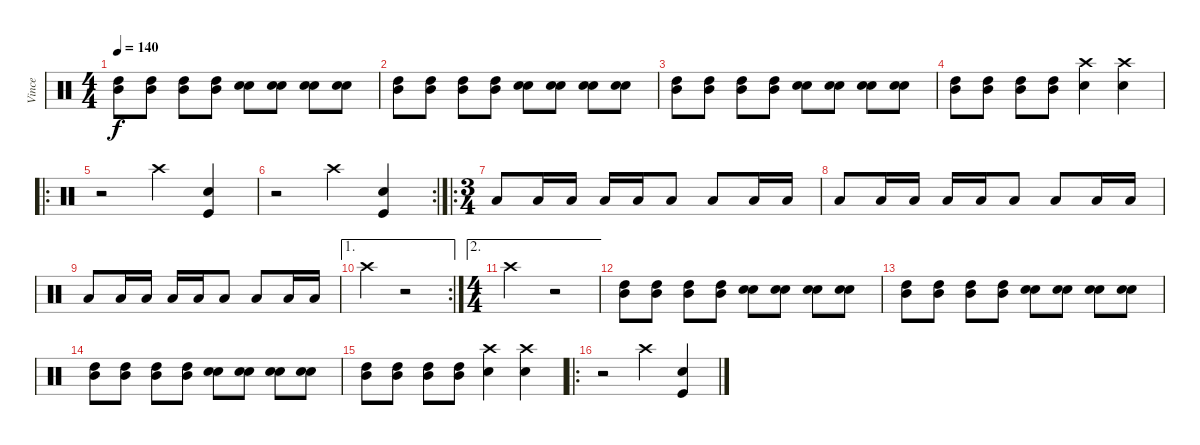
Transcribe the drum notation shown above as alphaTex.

\track ("Vince" "Vince") {instrument percussion}
\staff {score}
\articulation defaults
\ts (4 4)
\tempo 140
\clef neutral
\ks c
("High Tom (hit)" "Mid Tom (hit)").8{dy f} ("High Tom (hit)" "Mid Tom (hit)").8 ("High Tom (hit)" "Mid Tom (hit)").8 ("High Tom (hit)" "Mid Tom (hit)").8 ("Snare (hit) 2" "Snare (hit) 2").8 ("Snare (hit) 2" "Snare (hit) 2").8 ("Snare (hit) 2" "Snare (hit) 2").8 ("Snare (hit) 2" "Snare (hit) 2").8 |
("High Tom (hit)" "Mid Tom (hit)").8 ("High Tom (hit)" "Mid Tom (hit)").8 ("High Tom (hit)" "Mid Tom (hit)").8 ("High Tom (hit)" "Mid Tom (hit)").8 ("Snare (hit) 2" "Snare (hit) 2").8 ("Snare (hit) 2" "Snare (hit) 2").8 ("Snare (hit) 2" "Snare (hit) 2").8 ("Snare (hit) 2" "Snare (hit) 2").8 |
("High Tom (hit)" "Mid Tom (hit)").8 ("High Tom (hit)" "Mid Tom (hit)").8 ("High Tom (hit)" "Mid Tom (hit)").8 ("High Tom (hit)" "Mid Tom (hit)").8 ("Snare (hit) 2" "Snare (hit) 2").8 ("Snare (hit) 2" "Snare (hit) 2").8 ("Snare (hit) 2" "Snare (hit) 2").8 ("Snare (hit) 2" "Snare (hit) 2").8 |
("High Tom (hit)" "Mid Tom (hit)").8 ("High Tom (hit)" "Mid Tom (hit)").8 ("High Tom (hit)" "Mid Tom (hit)").8 ("High Tom (hit)" "Mid Tom (hit)").8 ("Crash high (hit)" "Snare (hit) 2").4 ("Crash high (hit)" "Snare (hit) 2").4 |
\ro
r.2 "Crash high (hit)".4 ("Snare (hit) 2" "Kick (hit)").4 |
\rc 2
r.2 "Crash high (hit)".4 ("Snare (hit) 2" "Kick (hit)").4 |
\ro
\ts (3 4)
"Low Floor Tom (hit)".8 "Low Floor Tom (hit)".16 "Low Floor Tom (hit)".16 "Low Floor Tom (hit)".16 "Low Floor Tom (hit)".16 "Low Floor Tom (hit)".8 "Low Floor Tom (hit)".8 "Low Floor Tom (hit)".16 "Low Floor Tom (hit)".16 |
"Low Floor Tom (hit)".8 "Low Floor Tom (hit)".16 "Low Floor Tom (hit)".16 "Low Floor Tom (hit)".16 "Low Floor Tom (hit)".16 "Low Floor Tom (hit)".8 "Low Floor Tom (hit)".8 "Low Floor Tom (hit)".16 "Low Floor Tom (hit)".16 |
"Low Floor Tom (hit)".8 "Low Floor Tom (hit)".16 "Low Floor Tom (hit)".16 "Low Floor Tom (hit)".16 "Low Floor Tom (hit)".16 "Low Floor Tom (hit)".8 "Low Floor Tom (hit)".8 "Low Floor Tom (hit)".16 "Low Floor Tom (hit)".16 |
\ae 1
\rc 2 "Crash high (hit)".4
r.2 |
\ae 2
\ts (4 4)
"Crash high (hit)".2 r.2 |
("High Tom (hit)" "Mid Tom (hit)").8 ("High Tom (hit)" "Mid Tom (hit)").8 ("High Tom (hit)" "Mid Tom (hit)").8 ("High Tom (hit)" "Mid Tom (hit)").8 ("Snare (hit) 2" "Snare (hit) 2").8 ("Snare (hit) 2" "Snare (hit) 2").8 ("Snare (hit) 2" "Snare (hit) 2").8 ("Snare (hit) 2" "Snare (hit) 2").8 |
("High Tom (hit)" "Mid Tom (hit)").8 ("High Tom (hit)" "Mid Tom (hit)").8 ("High Tom (hit)" "Mid Tom (hit)").8 ("High Tom (hit)" "Mid Tom (hit)").8 ("Snare (hit) 2" "Snare (hit) 2").8 ("Snare (hit) 2" "Snare (hit) 2").8 ("Snare (hit) 2" "Snare (hit) 2").8 ("Snare (hit) 2" "Snare (hit) 2").8 |
("High Tom (hit)" "Mid Tom (hit)").8 ("High Tom (hit)" "Mid Tom (hit)").8 ("High Tom (hit)" "Mid Tom (hit)").8 ("High Tom (hit)" "Mid Tom (hit)").8 ("Snare (hit) 2" "Snare (hit) 2").8 ("Snare (hit) 2" "Snare (hit) 2").8 ("Snare (hit) 2" "Snare (hit) 2").8 ("Snare (hit) 2" "Snare (hit) 2").8 |
("High Tom (hit)" "Mid Tom (hit)").8 ("High Tom (hit)" "Mid Tom (hit)").8 ("High Tom (hit)" "Mid Tom (hit)").8 ("High Tom (hit)" "Mid Tom (hit)").8 ("Crash high (hit)" "Snare (hit) 2").4 ("Crash high (hit)" "Snare (hit) 2").4 |
\ro
r.2 "Crash high (hit)".4 ("Snare (hit) 2" "Kick (hit)").4
